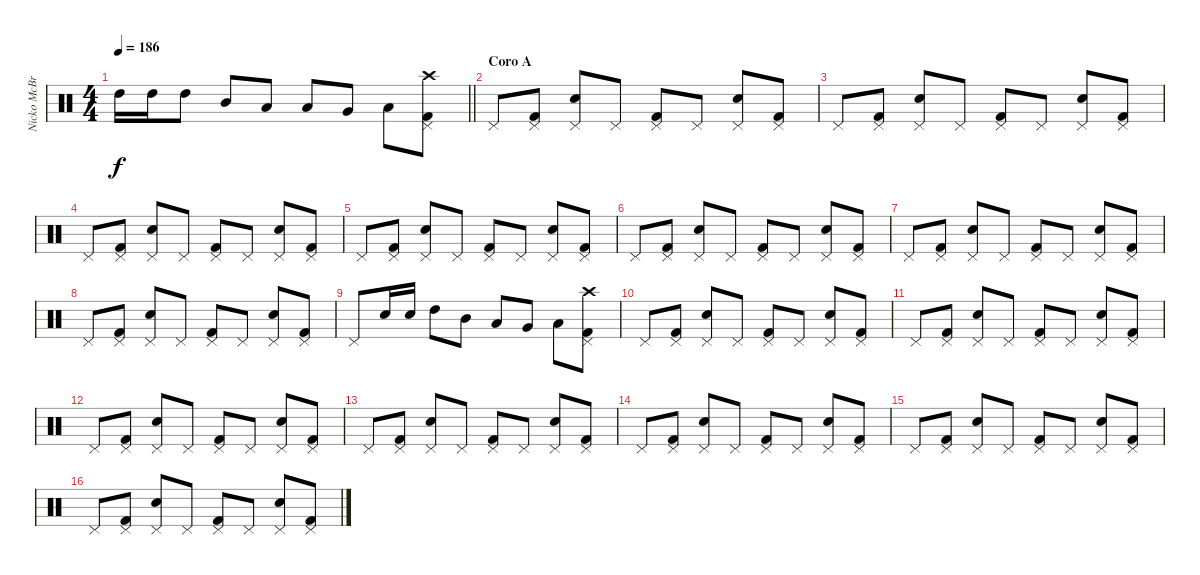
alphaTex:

\track ("Nicko McBrain" "Nicko McBr") {instrument percussion}
\staff {score}
\articulation defaults
\ts (4 4)
\tempo 186
\clef neutral
\barLineRight lightlight
\ks c "High Tom (hit)".16{dy f} "High Tom (hit)".16 "High Tom (hit)".8 "Mid Tom (hit)".8 "Low Tom (hit)".8 "Low Tom (hit)".8 "Very Low Tom (hit)".8 "Low Floor Tom (hit)".8
("Kick (hit) 2" "Pedal Hi-Hat (hit)" "Crash high (hit)").8 |
\section ("" "Coro A")
"Pedal Hi-Hat (hit)".8 ("Kick (hit) 2" "Pedal Hi-Hat (hit)").8 ("Snare (hit) 2" "Pedal Hi-Hat (hit)").8 "Pedal Hi-Hat (hit)".8 ("Kick (hit) 2" "Pedal Hi-Hat (hit)").8 "Pedal Hi-Hat (hit)".8 ("Snare (hit) 2" "Pedal Hi-Hat (hit)").8 ("Kick (hit) 2" "Pedal Hi-Hat (hit)").8 |
"Pedal Hi-Hat (hit)".8 ("Kick (hit) 2" "Pedal Hi-Hat (hit)").8 ("Snare (hit) 2" "Pedal Hi-Hat (hit)").8 "Pedal Hi-Hat (hit)".8 ("Kick (hit) 2" "Pedal Hi-Hat (hit)").8 "Pedal Hi-Hat (hit)".8 ("Snare (hit) 2" "Pedal Hi-Hat (hit)").8 ("Kick (hit) 2" "Pedal Hi-Hat (hit)").8 |
"Pedal Hi-Hat (hit)".8 ("Kick (hit) 2" "Pedal Hi-Hat (hit)").8 ("Snare (hit) 2" "Pedal Hi-Hat (hit)").8 "Pedal Hi-Hat (hit)".8 ("Kick (hit) 2" "Pedal Hi-Hat (hit)").8 "Pedal Hi-Hat (hit)".8 ("Snare (hit) 2" "Pedal Hi-Hat (hit)").8 ("Kick (hit) 2" "Pedal Hi-Hat (hit)").8 |
"Pedal Hi-Hat (hit)".8 ("Kick (hit) 2" "Pedal Hi-Hat (hit)").8 ("Snare (hit) 2" "Pedal Hi-Hat (hit)").8 "Pedal Hi-Hat (hit)".8 ("Kick (hit) 2" "Pedal Hi-Hat (hit)").8 "Pedal Hi-Hat (hit)".8 ("Snare (hit) 2" "Pedal Hi-Hat (hit)").8 ("Kick (hit) 2" "Pedal Hi-Hat (hit)").8 |
"Pedal Hi-Hat (hit)".8 ("Kick (hit) 2" "Pedal Hi-Hat (hit)").8 ("Snare (hit) 2" "Pedal Hi-Hat (hit)").8 "Pedal Hi-Hat (hit)".8 ("Kick (hit) 2" "Pedal Hi-Hat (hit)").8 "Pedal Hi-Hat (hit)".8 ("Snare (hit) 2" "Pedal Hi-Hat (hit)").8 ("Kick (hit) 2" "Pedal Hi-Hat (hit)").8 |
"Pedal Hi-Hat (hit)".8 ("Kick (hit) 2" "Pedal Hi-Hat (hit)").8 ("Snare (hit) 2" "Pedal Hi-Hat (hit)").8 "Pedal Hi-Hat (hit)".8 ("Kick (hit) 2" "Pedal Hi-Hat (hit)").8 "Pedal Hi-Hat (hit)".8 ("Snare (hit) 2" "Pedal Hi-Hat (hit)").8 ("Kick (hit) 2" "Pedal Hi-Hat (hit)").8 |
"Pedal Hi-Hat (hit)".8 ("Kick (hit) 2" "Pedal Hi-Hat (hit)").8 ("Snare (hit) 2" "Pedal Hi-Hat (hit)").8 "Pedal Hi-Hat (hit)".8 ("Kick (hit) 2" "Pedal Hi-Hat (hit)").8 "Pedal Hi-Hat (hit)".8 ("Snare (hit) 2" "Pedal Hi-Hat (hit)").8 ("Kick (hit) 2" "Pedal Hi-Hat (hit)").8 |
"Pedal Hi-Hat (hit)".8 "Snare (hit) 2".16 "Snare (hit) 2".16 "High Tom (hit)".8 "Mid Tom (hit)".8 "Low Tom (hit)".8 "Very Low Tom (hit)".8 "Low Floor Tom (hit)".8 ("Kick (hit) 2" "Pedal Hi-Hat (hit)" "Crash high (hit)").8 |
"Pedal Hi-Hat (hit)".8 ("Kick (hit) 2" "Pedal Hi-Hat (hit)").8 ("Snare (hit) 2" "Pedal Hi-Hat (hit)").8 "Pedal Hi-Hat (hit)".8 ("Kick (hit) 2" "Pedal Hi-Hat (hit)").8 "Pedal Hi-Hat (hit)".8 ("Snare (hit) 2" "Pedal Hi-Hat (hit)").8 ("Kick (hit) 2" "Pedal Hi-Hat (hit)").8 |
"Pedal Hi-Hat (hit)".8 ("Kick (hit) 2" "Pedal Hi-Hat (hit)").8 ("Snare (hit) 2" "Pedal Hi-Hat (hit)").8 "Pedal Hi-Hat (hit)".8 ("Kick (hit) 2" "Pedal Hi-Hat (hit)").8 "Pedal Hi-Hat (hit)".8 ("Snare (hit) 2" "Pedal Hi-Hat (hit)").8 ("Kick (hit) 2" "Pedal Hi-Hat (hit)").8 |
"Pedal Hi-Hat (hit)".8 ("Kick (hit) 2" "Pedal Hi-Hat (hit)").8 ("Snare (hit) 2" "Pedal Hi-Hat (hit)").8 "Pedal Hi-Hat (hit)".8 ("Kick (hit) 2" "Pedal Hi-Hat (hit)").8 "Pedal Hi-Hat (hit)".8 ("Snare (hit) 2" "Pedal Hi-Hat (hit)").8 ("Kick (hit) 2" "Pedal Hi-Hat (hit)").8 |
"Pedal Hi-Hat (hit)".8 ("Kick (hit) 2" "Pedal Hi-Hat (hit)").8 ("Snare (hit) 2" "Pedal Hi-Hat (hit)").8 "Pedal Hi-Hat (hit)".8 ("Kick (hit) 2" "Pedal Hi-Hat (hit)").8 "Pedal Hi-Hat (hit)".8 ("Snare (hit) 2" "Pedal Hi-Hat (hit)").8 ("Kick (hit) 2" "Pedal Hi-Hat (hit)").8 |
"Pedal Hi-Hat (hit)".8 ("Kick (hit) 2" "Pedal Hi-Hat (hit)").8 ("Snare (hit) 2" "Pedal Hi-Hat (hit)").8 "Pedal Hi-Hat (hit)".8 ("Kick (hit) 2" "Pedal Hi-Hat (hit)").8 "Pedal Hi-Hat (hit)".8 ("Snare (hit) 2" "Pedal Hi-Hat (hit)").8 ("Kick (hit) 2" "Pedal Hi-Hat (hit)").8 |
"Pedal Hi-Hat (hit)".8 ("Kick (hit) 2" "Pedal Hi-Hat (hit)").8 ("Snare (hit) 2" "Pedal Hi-Hat (hit)").8 "Pedal Hi-Hat (hit)".8 ("Kick (hit) 2" "Pedal Hi-Hat (hit)").8 "Pedal Hi-Hat (hit)".8 ("Snare (hit) 2" "Pedal Hi-Hat (hit)").8 ("Kick (hit) 2" "Pedal Hi-Hat (hit)").8 |
"Pedal Hi-Hat (hit)".8 ("Kick (hit) 2" "Pedal Hi-Hat (hit)").8 ("Snare (hit) 2" "Pedal Hi-Hat (hit)").8 "Pedal Hi-Hat (hit)".8 ("Kick (hit) 2" "Pedal Hi-Hat (hit)").8 "Pedal Hi-Hat (hit)".8 ("Snare (hit) 2" "Pedal Hi-Hat (hit)").8 ("Kick (hit) 2" "Pedal Hi-Hat (hit)").8
